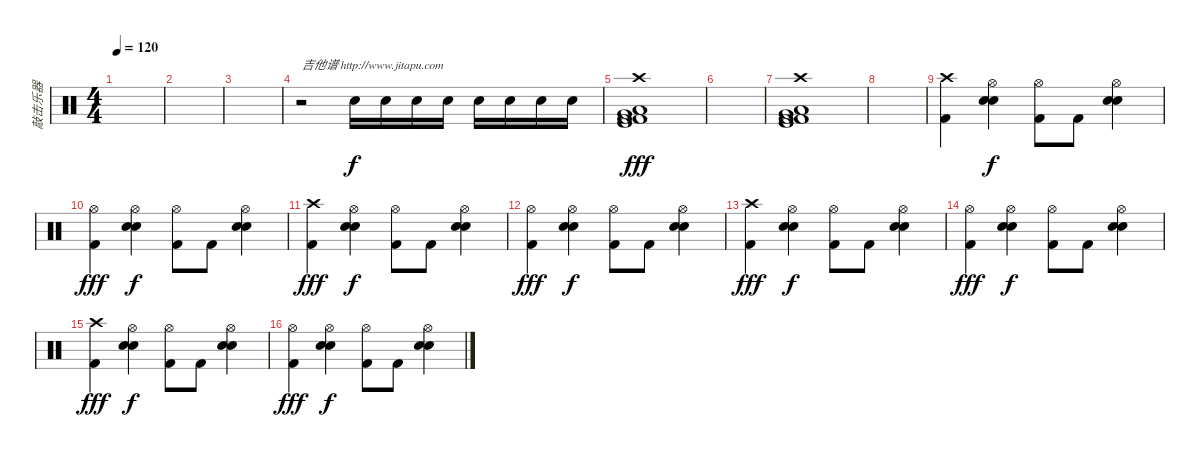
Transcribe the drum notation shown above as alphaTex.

\track ("敲击乐器" "敲击乐器") {instrument percussion}
\staff {score}
\articulation defaults
\ts (4 4)
\tempo 120
\clef neutral
\ks c
|
|
|
r.2{txt "吉他谱 http://www.jitapu.com"} "Electric Snare (hit)".16 "Electric Snare (hit)".16 "Electric Snare (hit)".16 "Electric Snare (hit)".16 "Electric Snare (hit)".16 "Electric Snare (hit)".16 "Electric Snare (hit)".16 "Electric Snare (hit)".16 |
("Kick (hit) 2" "Kick (hit)" "Very Low Tom (hit)" "Low Tom (hit)" "Crash high (hit)" "Kick (hit) 2").1{dy fff} |
|
("Kick (hit) 2" "Kick (hit)" "Very Low Tom (hit)" "Low Tom (hit)" "Crash high (hit)" "Kick (hit) 2").1 |
|
("Crash high (hit)" "Kick (hit) 2").4 ("Hi-Hat (open)" "Electric Snare (hit)" "Metronome (bell)").4{dy f} ("Hi-Hat (open)" "Kick (hit) 2").8 "Kick (hit) 2".8 ("Hi-Hat (open)" "Electric Snare (hit)" "Metronome (bell)").4 |
("Hi-Hat (open)" "Kick (hit) 2").4{dy fff} ("Hi-Hat (open)" "Electric Snare (hit)" "Metronome (bell)").4{dy f} ("Hi-Hat (open)" "Kick (hit) 2").8 "Kick (hit) 2".8 ("Hi-Hat (open)" "Electric Snare (hit)" "Metronome (bell)").4 |
("Crash high (hit)" "Kick (hit) 2").4{dy fff} ("Hi-Hat (open)" "Electric Snare (hit)" "Metronome (bell)").4{dy f} ("Hi-Hat (open)" "Kick (hit) 2").8 "Kick (hit) 2".8 ("Hi-Hat (open)" "Electric Snare (hit)" "Metronome (bell)").4 |
("Hi-Hat (open)" "Kick (hit) 2").4{dy fff} ("Hi-Hat (open)" "Electric Snare (hit)" "Metronome (bell)").4{dy f} ("Hi-Hat (open)" "Kick (hit) 2").8 "Kick (hit) 2".8 ("Hi-Hat (open)" "Electric Snare (hit)" "Metronome (bell)").4 |
("Crash high (hit)" "Kick (hit) 2").4{dy fff} ("Hi-Hat (open)" "Electric Snare (hit)" "Metronome (bell)").4{dy f} ("Hi-Hat (open)" "Kick (hit) 2").8 "Kick (hit) 2".8 ("Hi-Hat (open)" "Electric Snare (hit)" "Metronome (bell)").4 |
("Hi-Hat (open)" "Kick (hit) 2").4{dy fff} ("Hi-Hat (open)" "Electric Snare (hit)" "Metronome (bell)").4{dy f} ("Hi-Hat (open)" "Kick (hit) 2").8 "Kick (hit) 2".8 ("Hi-Hat (open)" "Electric Snare (hit)" "Metronome (bell)").4 |
("Crash high (hit)" "Kick (hit) 2").4{dy fff} ("Hi-Hat (open)" "Electric Snare (hit)" "Metronome (bell)").4{dy f} ("Hi-Hat (open)" "Kick (hit) 2").8 "Kick (hit) 2".8 ("Hi-Hat (open)" "Electric Snare (hit)" "Metronome (bell)").4 |
("Hi-Hat (open)" "Kick (hit) 2").4{dy fff} ("Hi-Hat (open)" "Electric Snare (hit)" "Metronome (bell)").4{dy f} ("Hi-Hat (open)" "Kick (hit) 2").8 "Kick (hit) 2".8 ("Hi-Hat (open)" "Electric Snare (hit)" "Metronome (bell)").4
